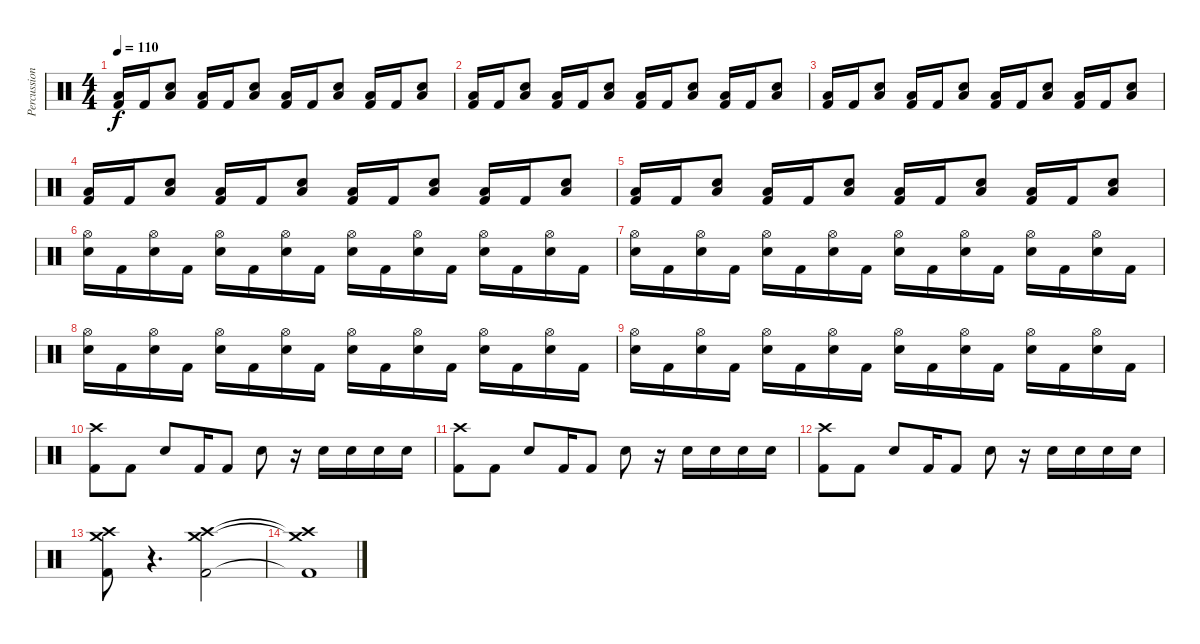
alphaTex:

\track ("Percussion" "Percussion") {instrument percussion}
\staff {score}
\articulation defaults
\ts (4 4)
\tempo 110
\clef neutral
\ks c
("Low Tom (hit)" "Kick (hit) 2").16{dy f} "Kick (hit) 2".16 ("Low Tom (hit)" "Electric Snare (hit)").8 ("Low Tom (hit)" "Kick (hit) 2").16 "Kick (hit) 2".16 ("Low Tom (hit)" "Electric Snare (hit)").8 ("Low Tom (hit)" "Kick (hit) 2").16 "Kick (hit) 2".16 ("Low Tom (hit)" "Electric Snare (hit)").8 ("Low Tom (hit)" "Kick (hit) 2").16 "Kick (hit) 2".16 ("Low Tom (hit)" "Electric Snare (hit)").8 |
("Low Tom (hit)" "Kick (hit) 2").16 "Kick (hit) 2".16 ("Low Tom (hit)" "Electric Snare (hit)").8 ("Low Tom (hit)" "Kick (hit) 2").16 "Kick (hit) 2".16 ("Low Tom (hit)" "Electric Snare (hit)").8 ("Low Tom (hit)" "Kick (hit) 2").16 "Kick (hit) 2".16 ("Low Tom (hit)" "Electric Snare (hit)").8 ("Low Tom (hit)" "Kick (hit) 2").16 "Kick (hit) 2".16 ("Low Tom (hit)" "Electric Snare (hit)").8 |
("Low Tom (hit)" "Kick (hit) 2").16 "Kick (hit) 2".16 ("Low Tom (hit)" "Electric Snare (hit)").8 ("Low Tom (hit)" "Kick (hit) 2").16 "Kick (hit) 2".16 ("Low Tom (hit)" "Electric Snare (hit)").8 ("Low Tom (hit)" "Kick (hit) 2").16 "Kick (hit) 2".16 ("Low Tom (hit)" "Electric Snare (hit)").8 ("Low Tom (hit)" "Kick (hit) 2").16 "Kick (hit) 2".16 ("Low Tom (hit)" "Electric Snare (hit)").8 |
("Low Tom (hit)" "Kick (hit) 2").16 "Kick (hit) 2".16 ("Low Tom (hit)" "Electric Snare (hit)").8 ("Low Tom (hit)" "Kick (hit) 2").16 "Kick (hit) 2".16 ("Low Tom (hit)" "Electric Snare (hit)").8 ("Low Tom (hit)" "Kick (hit) 2").16 "Kick (hit) 2".16 ("Low Tom (hit)" "Electric Snare (hit)").8 ("Low Tom (hit)" "Kick (hit) 2").16 "Kick (hit) 2".16 ("Low Tom (hit)" "Electric Snare (hit)").8 |
("Low Tom (hit)" "Kick (hit) 2").16 "Kick (hit) 2".16 ("Low Tom (hit)" "Electric Snare (hit)").8 ("Low Tom (hit)" "Kick (hit) 2").16 "Kick (hit) 2".16 ("Low Tom (hit)" "Electric Snare (hit)").8 ("Low Tom (hit)" "Kick (hit) 2").16 "Kick (hit) 2".16 ("Low Tom (hit)" "Electric Snare (hit)").8 ("Low Tom (hit)" "Kick (hit) 2").16 "Kick (hit) 2".16 ("Low Tom (hit)" "Electric Snare (hit)").8 |
("Hi-Hat (open)" "Electric Snare (hit)").16 "Kick (hit) 2".16 ("Hi-Hat (open)" "Electric Snare (hit)").16 "Kick (hit) 2".16 ("Hi-Hat (open)" "Electric Snare (hit)").16 "Kick (hit) 2".16 ("Hi-Hat (open)" "Electric Snare (hit)").16 "Kick (hit) 2".16 ("Hi-Hat (open)" "Electric Snare (hit)").16 "Kick (hit) 2".16 ("Hi-Hat (open)" "Electric Snare (hit)").16 "Kick (hit) 2".16 ("Hi-Hat (open)" "Electric Snare (hit)").16 "Kick (hit) 2".16 ("Hi-Hat (open)" "Electric Snare (hit)").16 "Kick (hit) 2".16 |
("Hi-Hat (open)" "Electric Snare (hit)").16 "Kick (hit) 2".16 ("Hi-Hat (open)" "Electric Snare (hit)").16 "Kick (hit) 2".16 ("Hi-Hat (open)" "Electric Snare (hit)").16 "Kick (hit) 2".16 ("Hi-Hat (open)" "Electric Snare (hit)").16 "Kick (hit) 2".16 ("Hi-Hat (open)" "Electric Snare (hit)").16 "Kick (hit) 2".16 ("Hi-Hat (open)" "Electric Snare (hit)").16 "Kick (hit) 2".16 ("Hi-Hat (open)" "Electric Snare (hit)").16 "Kick (hit) 2".16 ("Hi-Hat (open)" "Electric Snare (hit)").16 "Kick (hit) 2".16 |
("Hi-Hat (open)" "Electric Snare (hit)").16 "Kick (hit) 2".16 ("Hi-Hat (open)" "Electric Snare (hit)").16 "Kick (hit) 2".16 ("Hi-Hat (open)" "Electric Snare (hit)").16 "Kick (hit) 2".16 ("Hi-Hat (open)" "Electric Snare (hit)").16 "Kick (hit) 2".16 ("Hi-Hat (open)" "Electric Snare (hit)").16 "Kick (hit) 2".16 ("Hi-Hat (open)" "Electric Snare (hit)").16 "Kick (hit) 2".16 ("Hi-Hat (open)" "Electric Snare (hit)").16 "Kick (hit) 2".16 ("Hi-Hat (open)" "Electric Snare (hit)").16 "Kick (hit) 2".16 |
("Hi-Hat (open)" "Electric Snare (hit)").16 "Kick (hit) 2".16 ("Hi-Hat (open)" "Electric Snare (hit)").16 "Kick (hit) 2".16 ("Hi-Hat (open)" "Electric Snare (hit)").16 "Kick (hit) 2".16 ("Hi-Hat (open)" "Electric Snare (hit)").16 "Kick (hit) 2".16 ("Hi-Hat (open)" "Electric Snare (hit)").16 "Kick (hit) 2".16 ("Hi-Hat (open)" "Electric Snare (hit)").16 "Kick (hit) 2".16 ("Hi-Hat (open)" "Electric Snare (hit)").16 "Kick (hit) 2".16 ("Hi-Hat (open)" "Electric Snare (hit)").16 "Kick (hit) 2".16 |
("Crash high (hit)" "Kick (hit) 2").8 "Kick (hit) 2".8 "Electric Snare (hit)".8 "Kick (hit) 2".16 "Kick (hit) 2".8 "Electric Snare (hit)".8 r.16 "Electric Snare (hit)".16 "Electric Snare (hit)".16 "Electric Snare (hit)".16 "Electric Snare (hit)".16 |
("Crash high (hit)" "Kick (hit) 2").8 "Kick (hit) 2".8 "Electric Snare (hit)".8 "Kick (hit) 2".16 "Kick (hit) 2".8 "Electric Snare (hit)".8 r.16 "Electric Snare (hit)".16 "Electric Snare (hit)".16 "Electric Snare (hit)".16 "Electric Snare (hit)".16 |
("Crash high (hit)" "Kick (hit) 2").8 "Kick (hit) 2".8 "Electric Snare (hit)".8 "Kick (hit) 2".16 "Kick (hit) 2".8 "Electric Snare (hit)".8 r.16 "Electric Snare (hit)".16 "Electric Snare (hit)".16 "Electric Snare (hit)".16 "Electric Snare (hit)".16 |
("Crash medium (hit)" "Crash high (hit)" "Kick (hit) 2").8 r.4{d} ("Crash high (hit)" "Crash medium (hit)" "Kick (hit) 2").2 |
("Crash high (hit)"{t} "Crash medium (hit)"{t} "Kick (hit) 2"{t}).1
